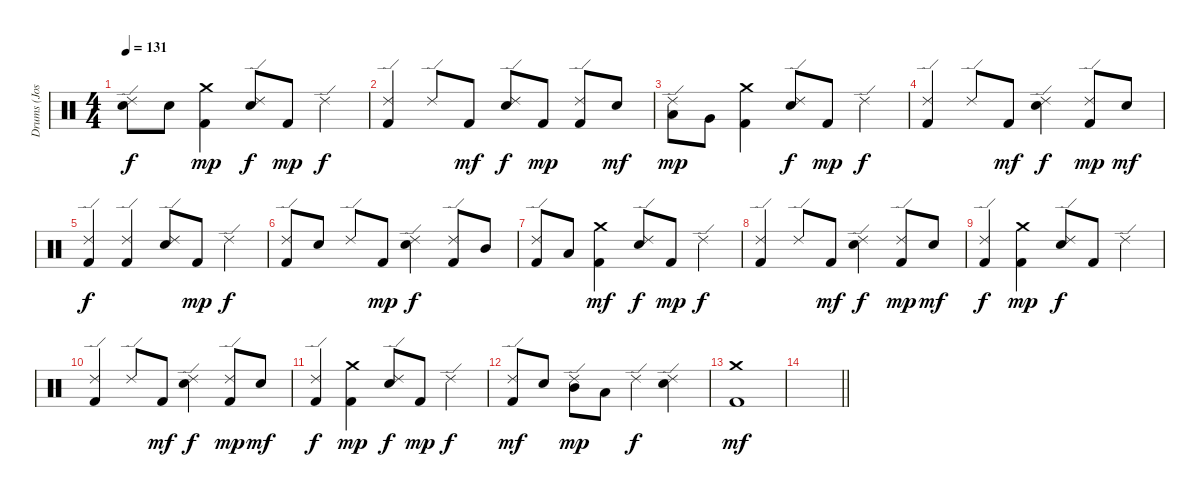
\track ("Drums (Josh Freese)" "Drums (Jos") {instrument percussion}
\staff {score}
\articulation defaults
\ts (4 4)
\tempo 131
\clef neutral
\ks c
("Ride (edge) 2" "Electric Snare (hit)").8{dy f} "Electric Snare (hit)".8 ("Crash medium (hit)" "Kick (hit) 2").4{dy mp} ("Ride (edge) 2" "Electric Snare (hit)").8{dy f} "Kick (hit) 2".8{dy mp} "Ride (edge) 2".4{dy f} |
("Ride (edge) 2" "Kick (hit) 2").4 "Ride (edge) 2".8 "Kick (hit) 2".8{dy mf} ("Ride (edge) 2" "Electric Snare (hit)").8{dy f} "Kick (hit) 2".8{dy mp} ("Ride (edge) 2" "Kick (hit) 2").8 "Electric Snare (hit)".8{dy mf} |
("Ride (edge) 2" "Low Tom (hit)").8{dy mp} "Very Low Tom (hit)".8 ("Crash medium (hit)" "Kick (hit) 2").4 ("Ride (edge) 2" "Electric Snare (hit)").8{dy f} "Kick (hit) 2".8{dy mp} "Ride (edge) 2".4{dy f} |
("Ride (edge) 2" "Kick (hit) 2").4 "Ride (edge) 2".8 "Kick (hit) 2".8{dy mf} ("Ride (edge) 2" "Electric Snare (hit)").4{dy f} ("Ride (edge) 2" "Kick (hit) 2").8{dy mp} "Electric Snare (hit)".8{dy mf} |
("Ride (edge) 2" "Kick (hit) 2").4{dy f} ("Ride (edge) 2" "Kick (hit) 2").4 ("Ride (edge) 2" "Electric Snare (hit)").8 "Kick (hit) 2".8{dy mp} "Ride (edge) 2".4{dy f} |
("Ride (edge) 2" "Kick (hit) 2").8 "Electric Snare (hit)".8 "Ride (edge) 2".8 "Kick (hit) 2".8{dy mp} ("Ride (edge) 2" "Electric Snare (hit)").4{dy f} ("Ride (edge) 2" "Kick (hit) 2").8 "Mid Tom (hit)".8 |
("Ride (edge) 2" "Kick (hit) 2").8 "Low Tom (hit)".8 ("Crash medium (hit)" "Kick (hit) 2").4{dy mf} ("Ride (edge) 2" "Electric Snare (hit)").8{dy f} "Kick (hit) 2".8{dy mp} "Ride (edge) 2".4{dy f} |
("Ride (edge) 2" "Kick (hit) 2").4 "Ride (edge) 2".8 "Kick (hit) 2".8{dy mf} ("Ride (edge) 2" "Electric Snare (hit)").4{dy f} ("Ride (edge) 2" "Kick (hit) 2").8{dy mp} "Electric Snare (hit)".8{dy mf} |
("Ride (edge) 2" "Kick (hit) 2").4{dy f} ("Crash medium (hit)" "Kick (hit) 2").4{dy mp} ("Ride (edge) 2" "Electric Snare (hit)").8{dy f} "Kick (hit) 2".8 "Ride (edge) 2".4 |
("Ride (edge) 2" "Kick (hit) 2").4 "Ride (edge) 2".8 "Kick (hit) 2".8{dy mf} ("Ride (edge) 2" "Electric Snare (hit)").4{dy f} ("Ride (edge) 2" "Kick (hit) 2").8{dy mp} "Electric Snare (hit)".8{dy mf} |
("Ride (edge) 2" "Kick (hit) 2").4{dy f} ("Crash medium (hit)" "Kick (hit) 2").4{dy mp} ("Ride (edge) 2" "Electric Snare (hit)").8{dy f} "Kick (hit) 2".8{dy mp} "Ride (edge) 2".4{dy f} |
("Ride (edge) 2" "Kick (hit) 2").8{dy mf} "Electric Snare (hit)".8 ("Ride (edge) 2" "Mid Tom (hit)").8{dy mp} "Low Tom (hit)".8 "Ride (edge) 2".4{dy f} ("Ride (edge) 2" "Electric Snare (hit)").4 |
("Crash medium (hit)" "Kick (hit) 2").1{dy mf} |
\barLineRight lightlight
